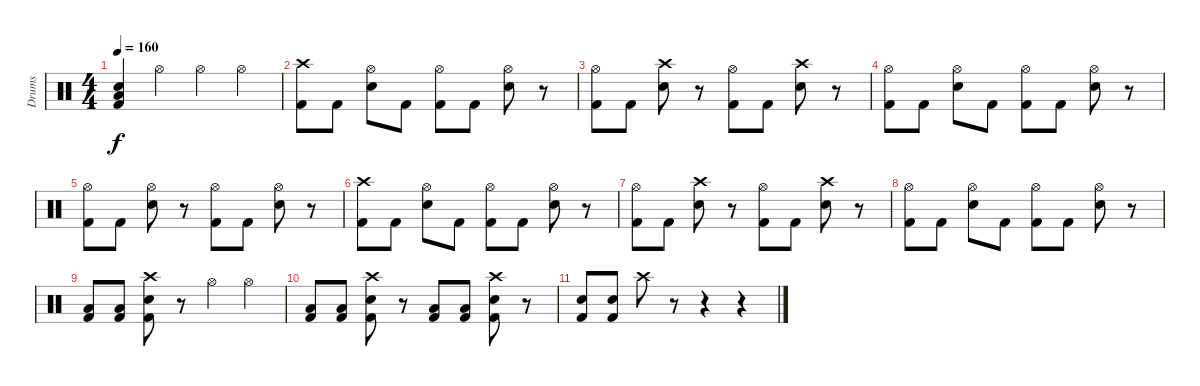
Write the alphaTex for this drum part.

\track ("Drums" "Drums") {instrument percussion}
\staff {score}
\articulation defaults
\ts (4 4)
\tempo 160
\clef neutral
\ks c
("Low Tom (hit)" "Snare (hit) 2" "Kick (hit) 2").4{dy f} "Hi-Hat (open)".4 "Hi-Hat (open)".4 "Hi-Hat (open)".4 |
("Crash high (hit)" "Kick (hit) 2").8 "Kick (hit) 2".8 ("Hi-Hat (open)" "Snare (hit) 2").8 "Kick (hit) 2".8 ("Hi-Hat (open)" "Kick (hit) 2").8 "Kick (hit) 2".8 ("Hi-Hat (open)" "Snare (hit) 2").8 r.8 |
("Hi-Hat (open)" "Kick (hit) 2").8 "Kick (hit) 2".8 ("Crash high (hit)" "Snare (hit) 2").8 r.8 ("Hi-Hat (open)" "Kick (hit) 2").8 "Kick (hit) 2".8 ("Crash high (hit)" "Snare (hit) 2").8 r.8 |
("Hi-Hat (open)" "Kick (hit) 2").8 "Kick (hit) 2".8 ("Hi-Hat (open)" "Snare (hit) 2").8 "Kick (hit) 2".8 ("Hi-Hat (open)" "Kick (hit) 2").8 "Kick (hit) 2".8 ("Hi-Hat (open)" "Snare (hit) 2").8 r.8 |
("Hi-Hat (open)" "Kick (hit) 2").8 "Kick (hit) 2".8 ("Hi-Hat (open)" "Snare (hit) 2").8 r.8 ("Hi-Hat (open)" "Kick (hit) 2").8 "Kick (hit) 2".8 ("Hi-Hat (open)" "Snare (hit) 2").8 r.8 |
("Crash high (hit)" "Kick (hit) 2").8 "Kick (hit) 2".8 ("Hi-Hat (open)" "Snare (hit) 2").8 "Kick (hit) 2".8 ("Hi-Hat (open)" "Kick (hit) 2").8 "Kick (hit) 2".8 ("Hi-Hat (open)" "Snare (hit) 2").8 r.8 |
("Hi-Hat (open)" "Kick (hit) 2").8 "Kick (hit) 2".8 ("Crash high (hit)" "Snare (hit) 2").8 r.8 ("Hi-Hat (open)" "Kick (hit) 2").8 "Kick (hit) 2".8 ("Crash high (hit)" "Snare (hit) 2").8 r.8 |
("Hi-Hat (open)" "Kick (hit) 2").8 "Kick (hit) 2".8 ("Hi-Hat (open)" "Snare (hit) 2").8 "Kick (hit) 2".8 ("Hi-Hat (open)" "Kick (hit) 2").8 "Kick (hit) 2".8 ("Hi-Hat (open)" "Snare (hit) 2").8 r.8 |
("Low Tom (hit)" "Kick (hit) 2").8 ("Low Tom (hit)" "Kick (hit) 2").8 ("Crash high (hit)" "Snare (hit) 2" "Kick (hit) 2").8 r.8 "Hi-Hat (open)".4 "Hi-Hat (open)".4 |
("Low Tom (hit)" "Kick (hit) 2").8 ("Low Tom (hit)" "Kick (hit) 2").8 ("Crash high (hit)" "Snare (hit) 2" "Kick (hit) 2").8 r.8 ("Low Tom (hit)" "Kick (hit) 2").8 ("Low Tom (hit)" "Kick (hit) 2").8 ("Crash high (hit)" "Snare (hit) 2" "Kick (hit) 2").8 r.8 |
("Snare (hit) 2" "Kick (hit) 2").8 ("Snare (hit) 2" "Kick (hit) 2").8 "Crash high (hit)".8 r.8 r.4 r.4
